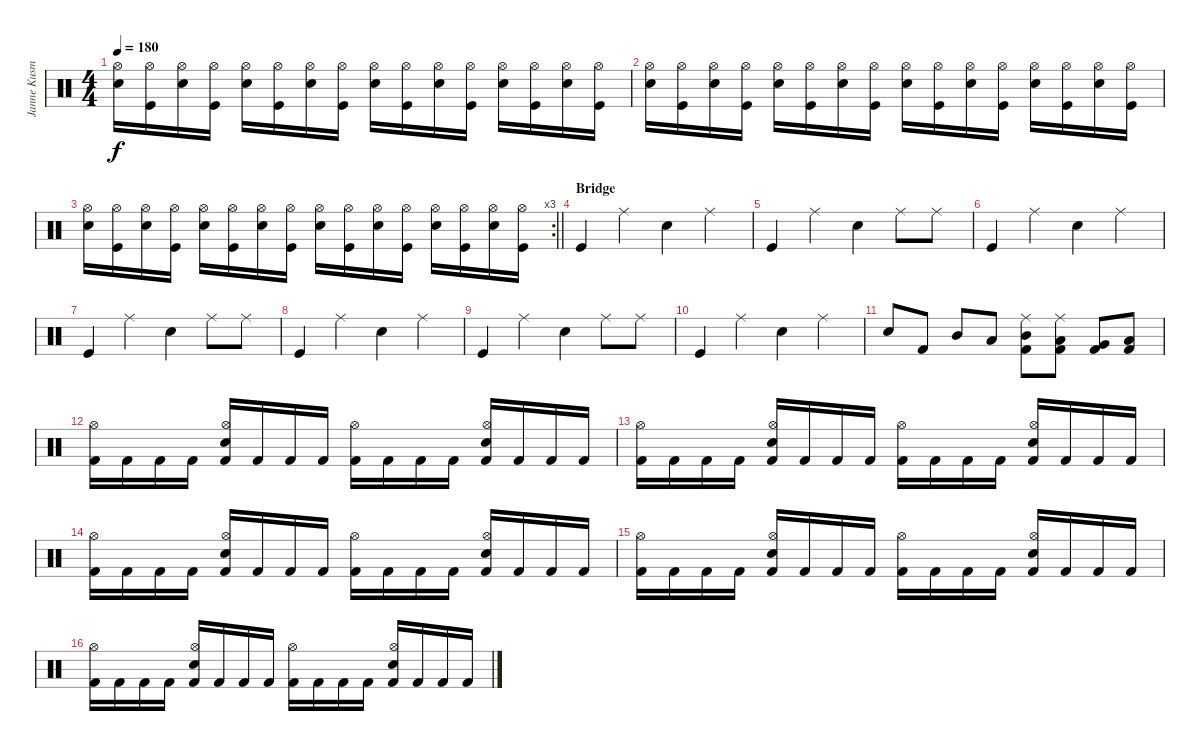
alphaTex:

\track ("Janne Kusmin" "Janne Kusm") {instrument percussion}
\staff {score}
\articulation defaults
\ts (4 4)
\tempo 180
\clef neutral
\ks c
("Electric Snare (hit)" "Hi-Hat (open)").16{dy f} ("Kick (hit)" "Hi-Hat (open)").16 ("Electric Snare (hit)" "Hi-Hat (open)").16 ("Kick (hit)" "Hi-Hat (open)").16 ("Electric Snare (hit)" "Hi-Hat (open)").16 ("Kick (hit)" "Hi-Hat (open)").16 ("Electric Snare (hit)" "Hi-Hat (open)").16 ("Kick (hit)" "Hi-Hat (open)").16 ("Electric Snare (hit)" "Hi-Hat (open)").16 ("Kick (hit)" "Hi-Hat (open)").16 ("Electric Snare (hit)" "Hi-Hat (open)").16 ("Kick (hit)" "Hi-Hat (open)").16 ("Electric Snare (hit)" "Hi-Hat (open)").16 ("Kick (hit)" "Hi-Hat (open)").16 ("Electric Snare (hit)" "Hi-Hat (open)").16 ("Kick (hit)" "Hi-Hat (open)").16 |
("Electric Snare (hit)" "Hi-Hat (open)").16 ("Kick (hit)" "Hi-Hat (open)").16 ("Electric Snare (hit)" "Hi-Hat (open)").16 ("Kick (hit)" "Hi-Hat (open)").16 ("Electric Snare (hit)" "Hi-Hat (open)").16 ("Kick (hit)" "Hi-Hat (open)").16 ("Electric Snare (hit)" "Hi-Hat (open)").16 ("Kick (hit)" "Hi-Hat (open)").16 ("Electric Snare (hit)" "Hi-Hat (open)").16 ("Kick (hit)" "Hi-Hat (open)").16 ("Electric Snare (hit)" "Hi-Hat (open)").16 ("Kick (hit)" "Hi-Hat (open)").16 ("Electric Snare (hit)" "Hi-Hat (open)").16 ("Kick (hit)" "Hi-Hat (open)").16 ("Electric Snare (hit)" "Hi-Hat (open)").16 ("Kick (hit)" "Hi-Hat (open)").16 |
\rc 3
\barLineRight lightlight
("Electric Snare (hit)" "Hi-Hat (open)").16 ("Kick (hit)" "Hi-Hat (open)").16 ("Electric Snare (hit)" "Hi-Hat (open)").16 ("Kick (hit)" "Hi-Hat (open)").16 ("Electric Snare (hit)" "Hi-Hat (open)").16 ("Kick (hit)" "Hi-Hat (open)").16 ("Electric Snare (hit)" "Hi-Hat (open)").16 ("Kick (hit)" "Hi-Hat (open)").16 ("Electric Snare (hit)" "Hi-Hat (open)").16 ("Kick (hit)" "Hi-Hat (open)").16 ("Electric Snare (hit)" "Hi-Hat (open)").16 ("Kick (hit)" "Hi-Hat (open)").16 ("Electric Snare (hit)" "Hi-Hat (open)").16 ("Kick (hit)" "Hi-Hat (open)").16 ("Electric Snare (hit)" "Hi-Hat (open)").16 ("Kick (hit)" "Hi-Hat (open)").16 |
\section ("" "Bridge")
"Kick (hit)".4 "Ride (middle)".4 "Electric Snare (hit)".4 "Ride (middle)".4 |
"Kick (hit)".4 "Ride (middle)".4 "Electric Snare (hit)".4 "Ride (middle)".8 "Ride (middle)".8 |
"Kick (hit)".4 "Ride (middle)".4 "Electric Snare (hit)".4 "Ride (middle)".4 |
"Kick (hit)".4 "Ride (middle)".4 "Electric Snare (hit)".4 "Ride (middle)".8 "Ride (middle)".8 |
"Kick (hit)".4 "Ride (middle)".4 "Electric Snare (hit)".4 "Ride (middle)".4 |
"Kick (hit)".4 "Ride (middle)".4 "Electric Snare (hit)".4 "Ride (middle)".8 "Ride (middle)".8 |
"Kick (hit)".4 "Ride (middle)".4 "Electric Snare (hit)".4 "Ride (middle)".4 |
"Electric Snare (hit)".8 "Kick (hit) 2".8 "Mid Tom (hit)".8 "Low Tom (hit)".8 ("Kick (hit) 2" "Mid Tom (hit)" "Ride (middle)").8 ("Kick (hit) 2" "Low Tom (hit)" "Ride (middle)").8 ("Kick (hit) 2" "Very Low Tom (hit)").8 ("Kick (hit) 2" "Low Floor Tom (hit)").8 |
("Kick (hit) 2" "Hi-Hat (open)").16 "Kick (hit) 2".16 "Kick (hit) 2".16 "Kick (hit) 2".16 ("Kick (hit) 2" "Hi-Hat (open)" "Electric Snare (hit)").16 "Kick (hit) 2".16 "Kick (hit) 2".16 "Kick (hit) 2".16 ("Kick (hit) 2" "Hi-Hat (open)").16 "Kick (hit) 2".16 "Kick (hit) 2".16 "Kick (hit) 2".16 ("Kick (hit) 2" "Hi-Hat (open)" "Electric Snare (hit)").16 "Kick (hit) 2".16 "Kick (hit) 2".16 "Kick (hit) 2".16 |
("Kick (hit) 2" "Hi-Hat (open)").16 "Kick (hit) 2".16 "Kick (hit) 2".16 "Kick (hit) 2".16 ("Kick (hit) 2" "Hi-Hat (open)" "Electric Snare (hit)").16 "Kick (hit) 2".16 "Kick (hit) 2".16 "Kick (hit) 2".16 ("Kick (hit) 2" "Hi-Hat (open)").16 "Kick (hit) 2".16 "Kick (hit) 2".16 "Kick (hit) 2".16 ("Kick (hit) 2" "Hi-Hat (open)" "Electric Snare (hit)").16 "Kick (hit) 2".16 "Kick (hit) 2".16 "Kick (hit) 2".16 |
("Kick (hit) 2" "Hi-Hat (open)").16 "Kick (hit) 2".16 "Kick (hit) 2".16 "Kick (hit) 2".16 ("Kick (hit) 2" "Hi-Hat (open)" "Electric Snare (hit)").16 "Kick (hit) 2".16 "Kick (hit) 2".16 "Kick (hit) 2".16 ("Kick (hit) 2" "Hi-Hat (open)").16 "Kick (hit) 2".16 "Kick (hit) 2".16 "Kick (hit) 2".16 ("Kick (hit) 2" "Hi-Hat (open)" "Electric Snare (hit)").16 "Kick (hit) 2".16 "Kick (hit) 2".16 "Kick (hit) 2".16 |
("Kick (hit) 2" "Hi-Hat (open)").16 "Kick (hit) 2".16 "Kick (hit) 2".16 "Kick (hit) 2".16 ("Kick (hit) 2" "Hi-Hat (open)" "Electric Snare (hit)").16 "Kick (hit) 2".16 "Kick (hit) 2".16 "Kick (hit) 2".16 ("Kick (hit) 2" "Hi-Hat (open)").16 "Kick (hit) 2".16 "Kick (hit) 2".16 "Kick (hit) 2".16 ("Kick (hit) 2" "Hi-Hat (open)" "Electric Snare (hit)").16 "Kick (hit) 2".16 "Kick (hit) 2".16 "Kick (hit) 2".16 |
("Kick (hit) 2" "Hi-Hat (open)").16 "Kick (hit) 2".16 "Kick (hit) 2".16 "Kick (hit) 2".16 ("Kick (hit) 2" "Hi-Hat (open)" "Electric Snare (hit)").16 "Kick (hit) 2".16 "Kick (hit) 2".16 "Kick (hit) 2".16 ("Kick (hit) 2" "Hi-Hat (open)").16 "Kick (hit) 2".16 "Kick (hit) 2".16 "Kick (hit) 2".16 ("Kick (hit) 2" "Hi-Hat (open)" "Electric Snare (hit)").16 "Kick (hit) 2".16 "Kick (hit) 2".16 "Kick (hit) 2".16
